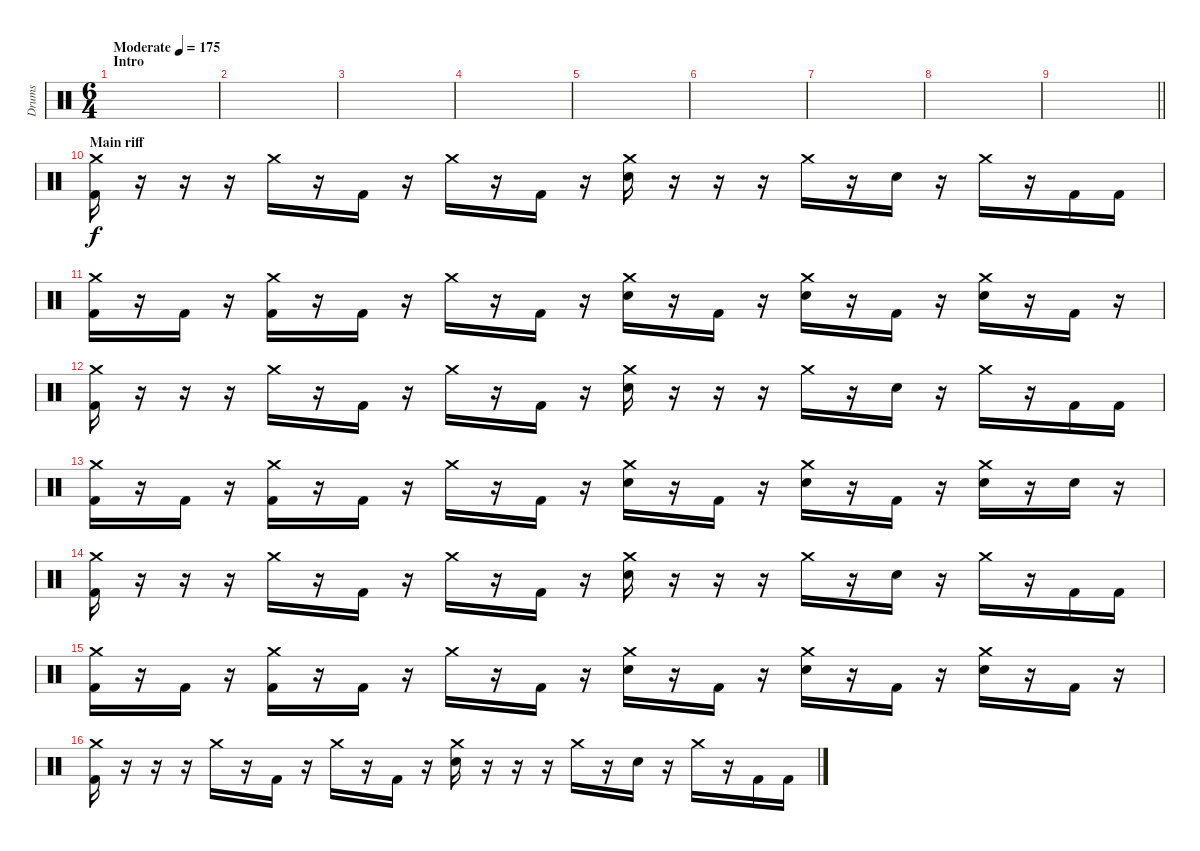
\track ("Drums" "Drums") {instrument percussion}
\staff {score}
\articulation defaults
\ts (6 4)
\section ("" "Intro")
\tempo (175 "Moderate")
\clef neutral
\ks c
|
|
|
|
|
|
|
|
\barLineRight lightlight
|
\section ("" "Main riff")
("Crash medium (hit)" "Kick (hit) 2").16 r.16 r.16 r.16 "Crash medium (hit)".16 r.16 "Kick (hit) 2".16 r.16 "Crash medium (hit)".16 r.16 "Kick (hit) 2".16 r.16 ("Crash medium (hit)" "Electric Snare (hit)").16 r.16 r.16 r.16 "Crash medium (hit)".16 r.16 "Electric Snare (hit)".16 r.16 "Crash medium (hit)".16 r.16 "Kick (hit) 2".16 "Kick (hit) 2".16 |
("Crash medium (hit)" "Kick (hit) 2").16 r.16 "Kick (hit) 2".16 r.16 ("Crash medium (hit)" "Kick (hit) 2").16 r.16 "Kick (hit) 2".16 r.16 "Crash medium (hit)".16 r.16 "Kick (hit) 2".16 r.16 ("Crash medium (hit)" "Electric Snare (hit)").16 r.16 "Kick (hit) 2".16 r.16 ("Crash medium (hit)" "Electric Snare (hit)").16 r.16 "Kick (hit) 2".16 r.16 ("Crash medium (hit)" "Electric Snare (hit)").16 r.16 "Kick (hit) 2".16 r.16 |
("Crash medium (hit)" "Kick (hit) 2").16 r.16 r.16 r.16 "Crash medium (hit)".16 r.16 "Kick (hit) 2".16 r.16 "Crash medium (hit)".16 r.16 "Kick (hit) 2".16 r.16 ("Crash medium (hit)" "Electric Snare (hit)").16 r.16 r.16 r.16 "Crash medium (hit)".16 r.16 "Electric Snare (hit)".16 r.16 "Crash medium (hit)".16 r.16 "Kick (hit) 2".16 "Kick (hit) 2".16 |
("Crash medium (hit)" "Kick (hit) 2").16 r.16 "Kick (hit) 2".16 r.16 ("Crash medium (hit)" "Kick (hit) 2").16 r.16 "Kick (hit) 2".16 r.16 "Crash medium (hit)".16 r.16 "Kick (hit) 2".16 r.16 ("Crash medium (hit)" "Electric Snare (hit)").16 r.16 "Kick (hit) 2".16 r.16 ("Crash medium (hit)" "Electric Snare (hit)").16 r.16 "Kick (hit) 2".16 r.16 ("Crash medium (hit)" "Electric Snare (hit)").16 r.16 "Electric Snare (hit)".16 r.16 |
("Crash medium (hit)" "Kick (hit) 2").16 r.16 r.16 r.16 "Crash medium (hit)".16 r.16 "Kick (hit) 2".16 r.16 "Crash medium (hit)".16 r.16 "Kick (hit) 2".16 r.16 ("Crash medium (hit)" "Electric Snare (hit)").16 r.16 r.16 r.16 "Crash medium (hit)".16 r.16 "Electric Snare (hit)".16 r.16 "Crash medium (hit)".16 r.16 "Kick (hit) 2".16 "Kick (hit) 2".16 |
("Crash medium (hit)" "Kick (hit) 2").16 r.16 "Kick (hit) 2".16 r.16 ("Crash medium (hit)" "Kick (hit) 2").16 r.16 "Kick (hit) 2".16 r.16 "Crash medium (hit)".16 r.16 "Kick (hit) 2".16 r.16 ("Crash medium (hit)" "Electric Snare (hit)").16 r.16 "Kick (hit) 2".16 r.16 ("Crash medium (hit)" "Electric Snare (hit)").16 r.16 "Kick (hit) 2".16 r.16 ("Crash medium (hit)" "Electric Snare (hit)").16 r.16 "Kick (hit) 2".16 r.16 |
("Crash medium (hit)" "Kick (hit) 2").16 r.16 r.16 r.16 "Crash medium (hit)".16 r.16 "Kick (hit) 2".16 r.16 "Crash medium (hit)".16 r.16 "Kick (hit) 2".16 r.16 ("Crash medium (hit)" "Electric Snare (hit)").16 r.16 r.16 r.16 "Crash medium (hit)".16 r.16 "Electric Snare (hit)".16 r.16 "Crash medium (hit)".16 r.16 "Kick (hit) 2".16 "Kick (hit) 2".16
